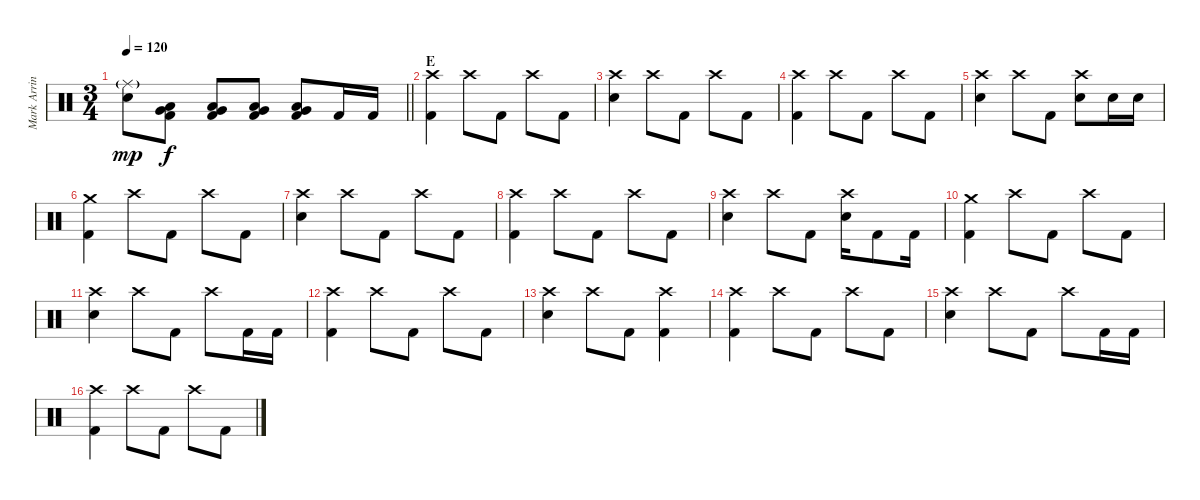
\track ("Mark Arrington Drums" "Mark Arrin") {instrument percussion}
\staff {score}
\articulation defaults
\ts (3 4)
\tempo 120
\clef neutral
\barLineRight lightlight
\ks c
("Ride (middle)"{g} "Electric Snare (hit)").8{dy mp} ("Low Tom (hit)" "Very Low Tom (hit)" "Kick (hit) 2").8{dy f} ("Low Tom (hit)" "Very Low Tom (hit)" "Kick (hit) 2").8 ("Low Tom (hit)" "Very Low Tom (hit)" "Kick (hit) 2").8 ("Low Tom (hit)" "Very Low Tom (hit)" "Kick (hit) 2").8 "Kick (hit) 2".16 "Kick (hit) 2".16 |
\section ("" "E")
("Crash high (hit)" "Kick (hit) 2").4 "Crash high (hit)".8 "Kick (hit) 2".8 "Crash high (hit)".8 "Kick (hit) 2".8 |
("Crash high (hit)" "Electric Snare (hit)").4 "Crash high (hit)".8 "Kick (hit) 2".8 "Crash high (hit)".8 "Kick (hit) 2".8 |
("Crash high (hit)" "Kick (hit) 2").4 "Crash high (hit)".8 "Kick (hit) 2".8 "Crash high (hit)".8 "Kick (hit) 2".8 |
("Crash high (hit)" "Electric Snare (hit)").4 "Crash high (hit)".8 "Kick (hit) 2".8 ("Crash high (hit)" "Electric Snare (hit)").8 "Electric Snare (hit)".16 "Electric Snare (hit)".16 |
("Crash medium (hit)" "Kick (hit) 2").4 "Crash high (hit)".8 "Kick (hit) 2".8 "Crash high (hit)".8 "Kick (hit) 2".8 |
("Crash high (hit)" "Electric Snare (hit)").4 "Crash high (hit)".8 "Kick (hit) 2".8 "Crash high (hit)".8 "Kick (hit) 2".8 |
("Crash high (hit)" "Kick (hit) 2").4 "Crash high (hit)".8 "Kick (hit) 2".8 "Crash high (hit)".8 "Kick (hit) 2".8 |
("Crash high (hit)" "Electric Snare (hit)").4 "Crash high (hit)".8 "Kick (hit) 2".8 ("Crash high (hit)" "Electric Snare (hit)").16 "Kick (hit) 2".8 "Kick (hit) 2".16 |
("Crash medium (hit)" "Kick (hit) 2").4 "Crash high (hit)".8 "Kick (hit) 2".8 "Crash high (hit)".8 "Kick (hit) 2".8 |
("Crash high (hit)" "Electric Snare (hit)").4 "Crash high (hit)".8 "Kick (hit) 2".8 "Crash high (hit)".8 "Kick (hit) 2".16 "Kick (hit) 2".16 |
("Crash high (hit)" "Kick (hit) 2").4 "Crash high (hit)".8 "Kick (hit) 2".8 "Crash high (hit)".8 "Kick (hit) 2".8 |
("Crash high (hit)" "Electric Snare (hit)").4 "Crash high (hit)".8 "Kick (hit) 2".8 ("Crash high (hit)" "Kick (hit) 2").4 |
("Crash high (hit)" "Kick (hit) 2").4 "Crash high (hit)".8 "Kick (hit) 2".8 "Crash high (hit)".8 "Kick (hit) 2".8 |
("Crash high (hit)" "Electric Snare (hit)").4 "Crash high (hit)".8 "Kick (hit) 2".8 "Crash high (hit)".8 "Kick (hit) 2".16 "Kick (hit) 2".16 |
("Crash high (hit)" "Kick (hit) 2").4 "Crash high (hit)".8 "Kick (hit) 2".8 "Crash high (hit)".8 "Kick (hit) 2".8
